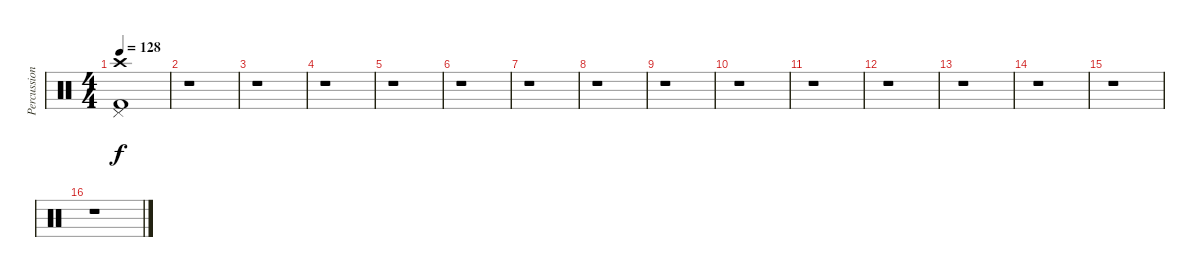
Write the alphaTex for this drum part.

\track ("Percussion" "Percussion") {instrument percussion}
\staff {score}
\articulation defaults
\ts (4 4)
\tempo 128
\clef neutral
\ks c
("Crash high (hit)" "Kick (hit) 2" "Pedal Hi-Hat (hit)").1{dy f} |
r.1 |
r.1 |
r.1 |
r.1 |
r.1 |
r.1 |
r.1 |
r.1 |
r.1 |
r.1 |
r.1 |
r.1 |
r.1 |
r.1 |
r.1
